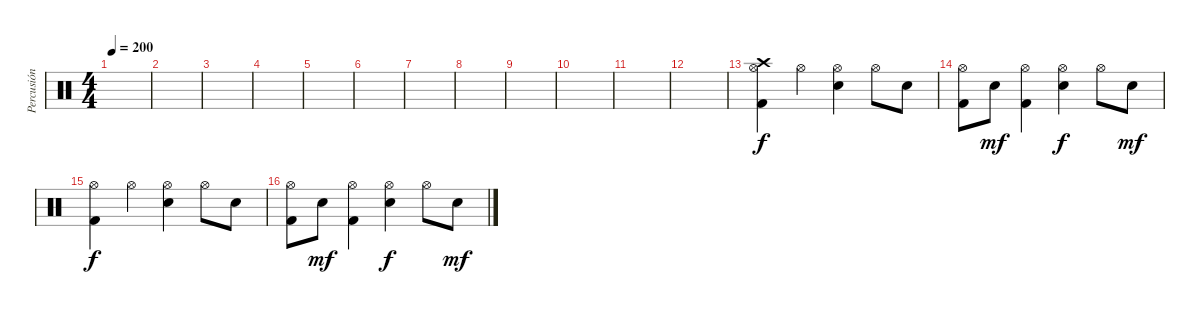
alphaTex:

\track ("Percusión" "Percusión") {instrument percussion}
\staff {score}
\articulation defaults
\ts (4 4)
\tempo 200
\clef neutral
\ks c
|
|
|
|
|
|
|
|
|
|
|
|
("Crash high (hit)" "Hi-Hat (open)" "Kick (hit) 2").4 "Hi-Hat (open)".4 ("Hi-Hat (open)" "Electric Snare (hit)").4 "Hi-Hat (open)".8 "Electric Snare (hit)".8 |
("Hi-Hat (open)" "Kick (hit) 2").8 "Electric Snare (hit)".8{dy mf} ("Hi-Hat (open)" "Kick (hit) 2").4 ("Hi-Hat (open)" "Electric Snare (hit)").4{dy f} "Hi-Hat (open)".8 "Electric Snare (hit)".8{dy mf} |
("Hi-Hat (open)" "Kick (hit) 2").4{dy f} "Hi-Hat (open)".4 ("Hi-Hat (open)" "Electric Snare (hit)").4 "Hi-Hat (open)".8 "Electric Snare (hit)".8 |
("Hi-Hat (open)" "Kick (hit) 2").8 "Electric Snare (hit)".8{dy mf} ("Hi-Hat (open)" "Kick (hit) 2").4 ("Hi-Hat (open)" "Electric Snare (hit)").4{dy f} "Hi-Hat (open)".8 "Electric Snare (hit)".8{dy mf}
